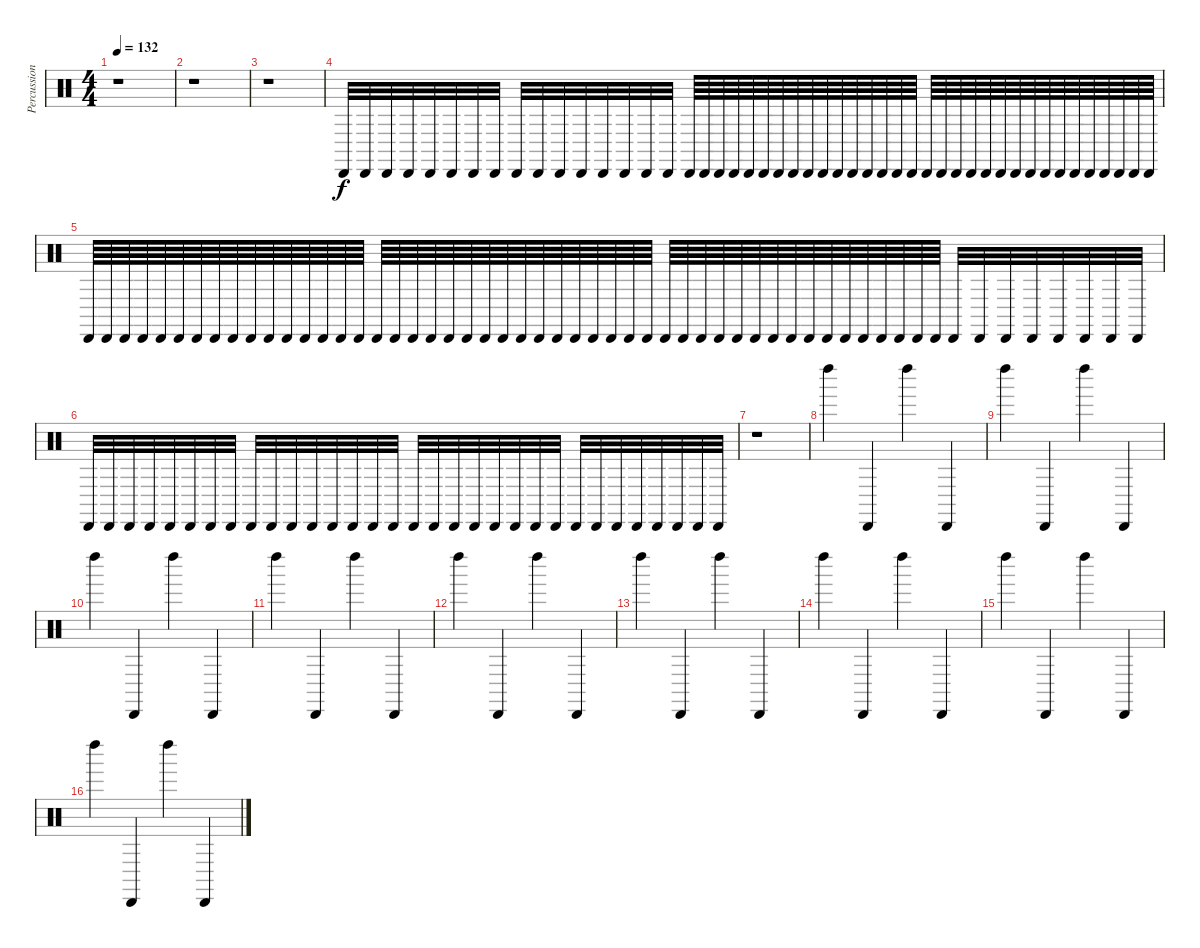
\track ("Percussion" "Percussion") {instrument percussion}
\staff {score}
\articulation defaults
\ts (4 4)
\tempo 132
\clef neutral
\ks c
r.1{dy f} |
r.1 |
r.1 |
"Cabasa (hit)".32{volume 10} "Cabasa (hit)".32 "Cabasa (hit)".32 "Cabasa (hit)".32 "Cabasa (hit)".32 "Cabasa (hit)".32 "Cabasa (hit)".32 "Cabasa (hit)".32 "Cabasa (hit)".32 "Cabasa (hit)".32 "Cabasa (hit)".32 "Cabasa (hit)".32 "Cabasa (hit)".32 "Cabasa (hit)".32 "Cabasa (hit)".32 "Cabasa (hit)".32 "Cabasa (hit)".64 "Cabasa (hit)".64 "Cabasa (hit)".64 "Cabasa (hit)".64 "Cabasa (hit)".64 "Cabasa (hit)".64 "Cabasa (hit)".64 "Cabasa (hit)".64 "Cabasa (hit)".64 "Cabasa (hit)".64 "Cabasa (hit)".64 "Cabasa (hit)".64 "Cabasa (hit)".64 "Cabasa (hit)".64 "Cabasa (hit)".64 "Cabasa (hit)".64 "Cabasa (hit)".64 "Cabasa (hit)".64 "Cabasa (hit)".64 "Cabasa (hit)".64 "Cabasa (hit)".64 "Cabasa (hit)".64{volume 16} "Cabasa (hit)".64 "Cabasa (hit)".64 "Cabasa (hit)".64 "Cabasa (hit)".64 "Cabasa (hit)".64 "Cabasa (hit)".64 "Cabasa (hit)".64 "Cabasa (hit)".64 "Cabasa (hit)".64 "Cabasa (hit)".64 |
"Cabasa (hit)".64 "Cabasa (hit)".64 "Cabasa (hit)".64 "Cabasa (hit)".64 "Cabasa (hit)".64 "Cabasa (hit)".64 "Cabasa (hit)".64 "Cabasa (hit)".64 "Cabasa (hit)".64 "Cabasa (hit)".64 "Cabasa (hit)".64 "Cabasa (hit)".64 "Cabasa (hit)".64 "Cabasa (hit)".64 "Cabasa (hit)".64 "Cabasa (hit)".64 "Cabasa (hit)".64 "Cabasa (hit)".64 "Cabasa (hit)".64 "Cabasa (hit)".64 "Cabasa (hit)".64 "Cabasa (hit)".64 "Cabasa (hit)".64 "Cabasa (hit)".64 "Cabasa (hit)".64 "Cabasa (hit)".64 "Cabasa (hit)".64 "Cabasa (hit)".64 "Cabasa (hit)".64 "Cabasa (hit)".64 "Cabasa (hit)".64 "Cabasa (hit)".64 "Cabasa (hit)".64 "Cabasa (hit)".64 "Cabasa (hit)".64 "Cabasa (hit)".64 "Cabasa (hit)".64 "Cabasa (hit)".64 "Cabasa (hit)".64 "Cabasa (hit)".64 "Cabasa (hit)".64 "Cabasa (hit)".64 "Cabasa (hit)".64 "Cabasa (hit)".64 "Cabasa (hit)".64 "Cabasa (hit)".64 "Cabasa (hit)".64 "Cabasa (hit)".64 "Cabasa (hit)".32 "Cabasa (hit)".32 "Cabasa (hit)".32 "Cabasa (hit)".32 "Cabasa (hit)".32 "Cabasa (hit)".32 "Cabasa (hit)".32 "Cabasa (hit)".32 |
"Cabasa (hit)".32 "Cabasa (hit)".32 "Cabasa (hit)".32 "Cabasa (hit)".32 "Cabasa (hit)".32 "Cabasa (hit)".32 "Cabasa (hit)".32 "Cabasa (hit)".32 "Cabasa (hit)".32{volume 10} "Cabasa (hit)".32 "Cabasa (hit)".32 "Cabasa (hit)".32 "Cabasa (hit)".32 "Cabasa (hit)".32 "Cabasa (hit)".32 "Cabasa (hit)".32 "Cabasa (hit)".32 "Cabasa (hit)".32 "Cabasa (hit)".32 "Cabasa (hit)".32 "Cabasa (hit)".32 "Cabasa (hit)".32 "Cabasa (hit)".32{volume 5} "Cabasa (hit)".32 "Cabasa (hit)".32 "Cabasa (hit)".32 "Cabasa (hit)".32 "Cabasa (hit)".32 "Cabasa (hit)".32 "Cabasa (hit)".32 "Cabasa (hit)".32 "Cabasa (hit)".32 |
r.1 |
"Left Maraca (hit)".4{volume 16} "Cabasa (hit)".4 "Left Maraca (hit)".4 "Cabasa (hit)".4 |
"Left Maraca (hit)".4 "Cabasa (hit)".4 "Left Maraca (hit)".4 "Cabasa (hit)".4 |
"Left Maraca (hit)".4 "Cabasa (hit)".4 "Left Maraca (hit)".4 "Cabasa (hit)".4 |
"Left Maraca (hit)".4 "Cabasa (hit)".4 "Left Maraca (hit)".4 "Cabasa (hit)".4 |
"Left Maraca (hit)".4 "Cabasa (hit)".4 "Left Maraca (hit)".4 "Cabasa (hit)".4 |
"Left Maraca (hit)".4 "Cabasa (hit)".4 "Left Maraca (hit)".4 "Cabasa (hit)".4 |
"Left Maraca (hit)".4 "Cabasa (hit)".4 "Left Maraca (hit)".4 "Cabasa (hit)".4 |
"Left Maraca (hit)".4 "Cabasa (hit)".4 "Left Maraca (hit)".4 "Cabasa (hit)".4 |
"Left Maraca (hit)".4 "Cabasa (hit)".4 "Left Maraca (hit)".4 "Cabasa (hit)".4
